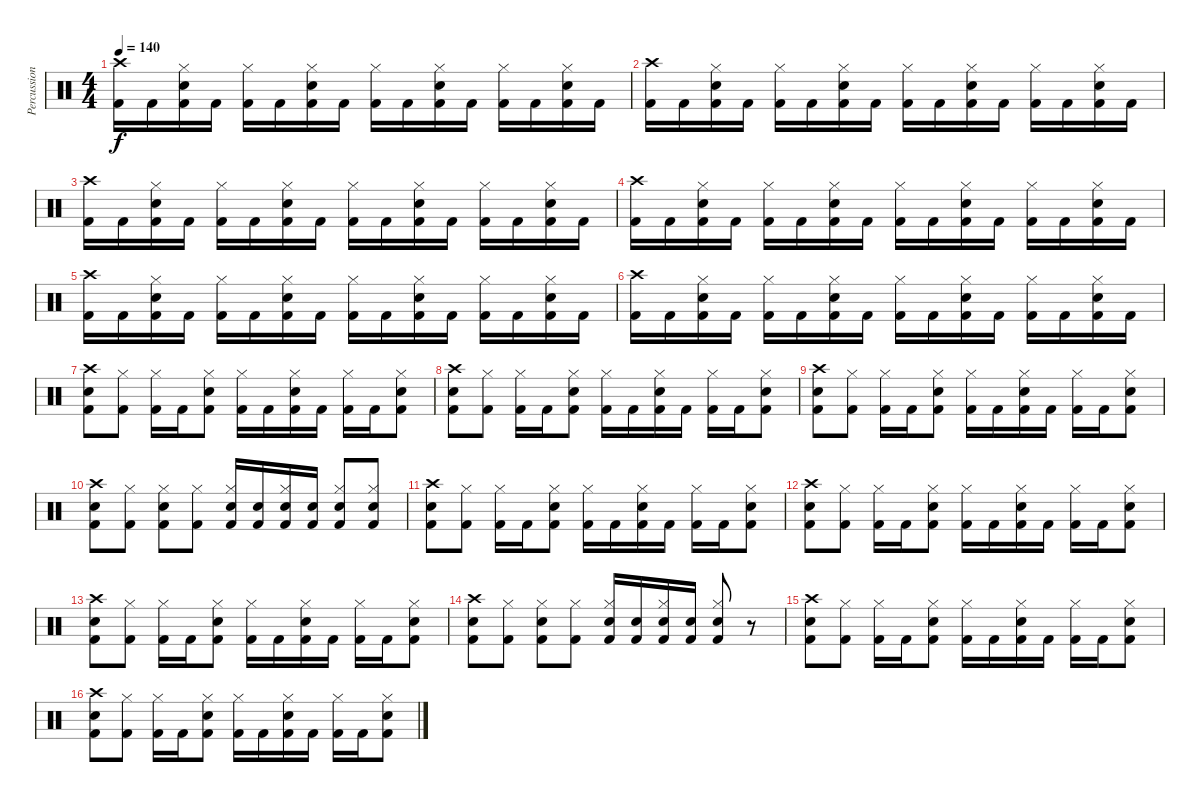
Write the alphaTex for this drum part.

\track ("Percussion" "Percussion") {instrument percussion}
\staff {score}
\articulation defaults
\ts (4 4)
\tempo 140
\clef neutral
\ks aminor
("Crash high (hit)" "Kick (hit) 2").16{dy f} "Kick (hit) 2".16 ("Hi-Hat (closed)" "Snare (hit) 2" "Kick (hit) 2").16 "Kick (hit) 2".16 ("Hi-Hat (closed)" "Kick (hit) 2").16 "Kick (hit) 2".16 ("Hi-Hat (closed)" "Snare (hit) 2" "Kick (hit) 2").16 "Kick (hit) 2".16 ("Hi-Hat (closed)" "Kick (hit) 2").16 "Kick (hit) 2".16 ("Hi-Hat (closed)" "Snare (hit) 2" "Kick (hit) 2").16 "Kick (hit) 2".16 ("Hi-Hat (closed)" "Kick (hit) 2").16 "Kick (hit) 2".16 ("Hi-Hat (closed)" "Snare (hit) 2" "Kick (hit) 2").16 "Kick (hit) 2".16 |
("Crash high (hit)" "Kick (hit) 2").16 "Kick (hit) 2".16 ("Hi-Hat (closed)" "Snare (hit) 2" "Kick (hit) 2").16 "Kick (hit) 2".16 ("Hi-Hat (closed)" "Kick (hit) 2").16 "Kick (hit) 2".16 ("Hi-Hat (closed)" "Snare (hit) 2" "Kick (hit) 2").16 "Kick (hit) 2".16 ("Hi-Hat (closed)" "Kick (hit) 2").16 "Kick (hit) 2".16 ("Hi-Hat (closed)" "Snare (hit) 2" "Kick (hit) 2").16 "Kick (hit) 2".16 ("Hi-Hat (closed)" "Kick (hit) 2").16 "Kick (hit) 2".16 ("Hi-Hat (closed)" "Snare (hit) 2" "Kick (hit) 2").16 "Kick (hit) 2".16 |
("Crash high (hit)" "Kick (hit) 2").16 "Kick (hit) 2".16 ("Hi-Hat (closed)" "Snare (hit) 2" "Kick (hit) 2").16 "Kick (hit) 2".16 ("Hi-Hat (closed)" "Kick (hit) 2").16 "Kick (hit) 2".16 ("Hi-Hat (closed)" "Snare (hit) 2" "Kick (hit) 2").16 "Kick (hit) 2".16 ("Hi-Hat (closed)" "Kick (hit) 2").16 "Kick (hit) 2".16 ("Hi-Hat (closed)" "Snare (hit) 2" "Kick (hit) 2").16 "Kick (hit) 2".16 ("Hi-Hat (closed)" "Kick (hit) 2").16 "Kick (hit) 2".16 ("Hi-Hat (closed)" "Snare (hit) 2" "Kick (hit) 2").16 "Kick (hit) 2".16 |
("Crash high (hit)" "Kick (hit) 2").16 "Kick (hit) 2".16 ("Hi-Hat (closed)" "Snare (hit) 2" "Kick (hit) 2").16 "Kick (hit) 2".16 ("Hi-Hat (closed)" "Kick (hit) 2").16 "Kick (hit) 2".16 ("Hi-Hat (closed)" "Snare (hit) 2" "Kick (hit) 2").16 "Kick (hit) 2".16 ("Hi-Hat (closed)" "Kick (hit) 2").16 "Kick (hit) 2".16 ("Hi-Hat (closed)" "Snare (hit) 2" "Kick (hit) 2").16 "Kick (hit) 2".16 ("Hi-Hat (closed)" "Kick (hit) 2").16 "Kick (hit) 2".16 ("Hi-Hat (closed)" "Snare (hit) 2" "Kick (hit) 2").16 "Kick (hit) 2".16 |
("Crash high (hit)" "Kick (hit) 2").16 "Kick (hit) 2".16 ("Hi-Hat (closed)" "Snare (hit) 2" "Kick (hit) 2").16 "Kick (hit) 2".16 ("Hi-Hat (closed)" "Kick (hit) 2").16 "Kick (hit) 2".16 ("Hi-Hat (closed)" "Snare (hit) 2" "Kick (hit) 2").16 "Kick (hit) 2".16 ("Hi-Hat (closed)" "Kick (hit) 2").16 "Kick (hit) 2".16 ("Hi-Hat (closed)" "Snare (hit) 2" "Kick (hit) 2").16 "Kick (hit) 2".16 ("Hi-Hat (closed)" "Kick (hit) 2").16 "Kick (hit) 2".16 ("Hi-Hat (closed)" "Snare (hit) 2" "Kick (hit) 2").16 "Kick (hit) 2".16 |
("Crash high (hit)" "Kick (hit) 2").16 "Kick (hit) 2".16 ("Hi-Hat (closed)" "Snare (hit) 2" "Kick (hit) 2").16 "Kick (hit) 2".16 ("Hi-Hat (closed)" "Kick (hit) 2").16 "Kick (hit) 2".16 ("Hi-Hat (closed)" "Snare (hit) 2" "Kick (hit) 2").16 "Kick (hit) 2".16 ("Hi-Hat (closed)" "Kick (hit) 2").16 "Kick (hit) 2".16 ("Hi-Hat (closed)" "Snare (hit) 2" "Kick (hit) 2").16 "Kick (hit) 2".16 ("Hi-Hat (closed)" "Kick (hit) 2").16 "Kick (hit) 2".16 ("Hi-Hat (closed)" "Snare (hit) 2" "Kick (hit) 2").16 "Kick (hit) 2".16 |
("Crash high (hit)" "Snare (hit) 2" "Kick (hit) 2").8 ("Hi-Hat (closed)" "Kick (hit) 2").8 ("Hi-Hat (closed)" "Kick (hit) 2").16 "Kick (hit) 2".16 ("Hi-Hat (closed)" "Snare (hit) 2" "Kick (hit) 2").8 ("Hi-Hat (closed)" "Kick (hit) 2").16 "Kick (hit) 2".16 ("Hi-Hat (closed)" "Snare (hit) 2" "Kick (hit) 2").16 "Kick (hit) 2".16 ("Hi-Hat (closed)" "Kick (hit) 2").16 "Kick (hit) 2".16 ("Hi-Hat (closed)" "Snare (hit) 2" "Kick (hit) 2").8 |
("Crash high (hit)" "Snare (hit) 2" "Kick (hit) 2").8 ("Hi-Hat (closed)" "Kick (hit) 2").8 ("Hi-Hat (closed)" "Kick (hit) 2").16 "Kick (hit) 2".16 ("Hi-Hat (closed)" "Snare (hit) 2" "Kick (hit) 2").8 ("Hi-Hat (closed)" "Kick (hit) 2").16 "Kick (hit) 2".16 ("Hi-Hat (closed)" "Snare (hit) 2" "Kick (hit) 2").16 "Kick (hit) 2".16 ("Hi-Hat (closed)" "Kick (hit) 2").16 "Kick (hit) 2".16 ("Hi-Hat (closed)" "Snare (hit) 2" "Kick (hit) 2").8 |
("Crash high (hit)" "Snare (hit) 2" "Kick (hit) 2").8 ("Hi-Hat (closed)" "Kick (hit) 2").8 ("Hi-Hat (closed)" "Kick (hit) 2").16 "Kick (hit) 2".16 ("Hi-Hat (closed)" "Snare (hit) 2" "Kick (hit) 2").8 ("Hi-Hat (closed)" "Kick (hit) 2").16 "Kick (hit) 2".16 ("Hi-Hat (closed)" "Snare (hit) 2" "Kick (hit) 2").16 "Kick (hit) 2".16 ("Hi-Hat (closed)" "Kick (hit) 2").16 "Kick (hit) 2".16 ("Hi-Hat (closed)" "Snare (hit) 2" "Kick (hit) 2").8 |
("Crash high (hit)" "Snare (hit) 2" "Kick (hit) 2").8 ("Hi-Hat (closed)" "Kick (hit) 2").8 ("Hi-Hat (closed)" "Snare (hit) 2" "Kick (hit) 2").8 ("Hi-Hat (closed)" "Kick (hit) 2").8 ("Hi-Hat (closed)" "Snare (hit) 2" "Kick (hit) 2").16 ("Snare (hit) 2" "Kick (hit) 2").16 ("Hi-Hat (closed)" "Snare (hit) 2" "Kick (hit) 2").16 ("Snare (hit) 2" "Kick (hit) 2").16 ("Hi-Hat (closed)" "Snare (hit) 2" "Kick (hit) 2").8 ("Hi-Hat (closed)" "Snare (hit) 2" "Kick (hit) 2").8 |
("Crash high (hit)" "Snare (hit) 2" "Kick (hit) 2").8 ("Hi-Hat (closed)" "Kick (hit) 2").8 ("Hi-Hat (closed)" "Kick (hit) 2").16 "Kick (hit) 2".16 ("Hi-Hat (closed)" "Snare (hit) 2" "Kick (hit) 2").8 ("Hi-Hat (closed)" "Kick (hit) 2").16 "Kick (hit) 2".16 ("Hi-Hat (closed)" "Snare (hit) 2" "Kick (hit) 2").16 "Kick (hit) 2".16 ("Hi-Hat (closed)" "Kick (hit) 2").16 "Kick (hit) 2".16 ("Hi-Hat (closed)" "Snare (hit) 2" "Kick (hit) 2").8 |
("Crash high (hit)" "Snare (hit) 2" "Kick (hit) 2").8 ("Hi-Hat (closed)" "Kick (hit) 2").8 ("Hi-Hat (closed)" "Kick (hit) 2").16 "Kick (hit) 2".16 ("Hi-Hat (closed)" "Snare (hit) 2" "Kick (hit) 2").8 ("Hi-Hat (closed)" "Kick (hit) 2").16 "Kick (hit) 2".16 ("Hi-Hat (closed)" "Snare (hit) 2" "Kick (hit) 2").16 "Kick (hit) 2".16 ("Hi-Hat (closed)" "Kick (hit) 2").16 "Kick (hit) 2".16 ("Hi-Hat (closed)" "Snare (hit) 2" "Kick (hit) 2").8 |
("Crash high (hit)" "Snare (hit) 2" "Kick (hit) 2").8 ("Hi-Hat (closed)" "Kick (hit) 2").8 ("Hi-Hat (closed)" "Kick (hit) 2").16 "Kick (hit) 2".16 ("Hi-Hat (closed)" "Snare (hit) 2" "Kick (hit) 2").8 ("Hi-Hat (closed)" "Kick (hit) 2").16 "Kick (hit) 2".16 ("Hi-Hat (closed)" "Snare (hit) 2" "Kick (hit) 2").16 "Kick (hit) 2".16 ("Hi-Hat (closed)" "Kick (hit) 2").16 "Kick (hit) 2".16 ("Hi-Hat (closed)" "Snare (hit) 2" "Kick (hit) 2").8 |
("Crash high (hit)" "Snare (hit) 2" "Kick (hit) 2").8 ("Hi-Hat (closed)" "Kick (hit) 2").8 ("Hi-Hat (closed)" "Snare (hit) 2" "Kick (hit) 2").8 ("Hi-Hat (closed)" "Kick (hit) 2").8 ("Hi-Hat (closed)" "Snare (hit) 2" "Kick (hit) 2").16 ("Snare (hit) 2" "Kick (hit) 2").16 ("Hi-Hat (closed)" "Snare (hit) 2" "Kick (hit) 2").16 ("Snare (hit) 2" "Kick (hit) 2").16 ("Hi-Hat (closed)" "Snare (hit) 2" "Kick (hit) 2").8 r.8 |
("Crash high (hit)" "Snare (hit) 2" "Kick (hit) 2").8 ("Hi-Hat (closed)" "Kick (hit) 2").8 ("Hi-Hat (closed)" "Kick (hit) 2").16 "Kick (hit) 2".16 ("Hi-Hat (closed)" "Snare (hit) 2" "Kick (hit) 2").8 ("Hi-Hat (closed)" "Kick (hit) 2").16 "Kick (hit) 2".16 ("Hi-Hat (closed)" "Snare (hit) 2" "Kick (hit) 2").16 "Kick (hit) 2".16 ("Hi-Hat (closed)" "Kick (hit) 2").16 "Kick (hit) 2".16 ("Hi-Hat (closed)" "Snare (hit) 2" "Kick (hit) 2").8 |
("Crash high (hit)" "Snare (hit) 2" "Kick (hit) 2").8 ("Hi-Hat (closed)" "Kick (hit) 2").8 ("Hi-Hat (closed)" "Kick (hit) 2").16 "Kick (hit) 2".16 ("Hi-Hat (closed)" "Snare (hit) 2" "Kick (hit) 2").8 ("Hi-Hat (closed)" "Kick (hit) 2").16 "Kick (hit) 2".16 ("Hi-Hat (closed)" "Snare (hit) 2" "Kick (hit) 2").16 "Kick (hit) 2".16 ("Hi-Hat (closed)" "Kick (hit) 2").16 "Kick (hit) 2".16 ("Hi-Hat (closed)" "Snare (hit) 2" "Kick (hit) 2").8
